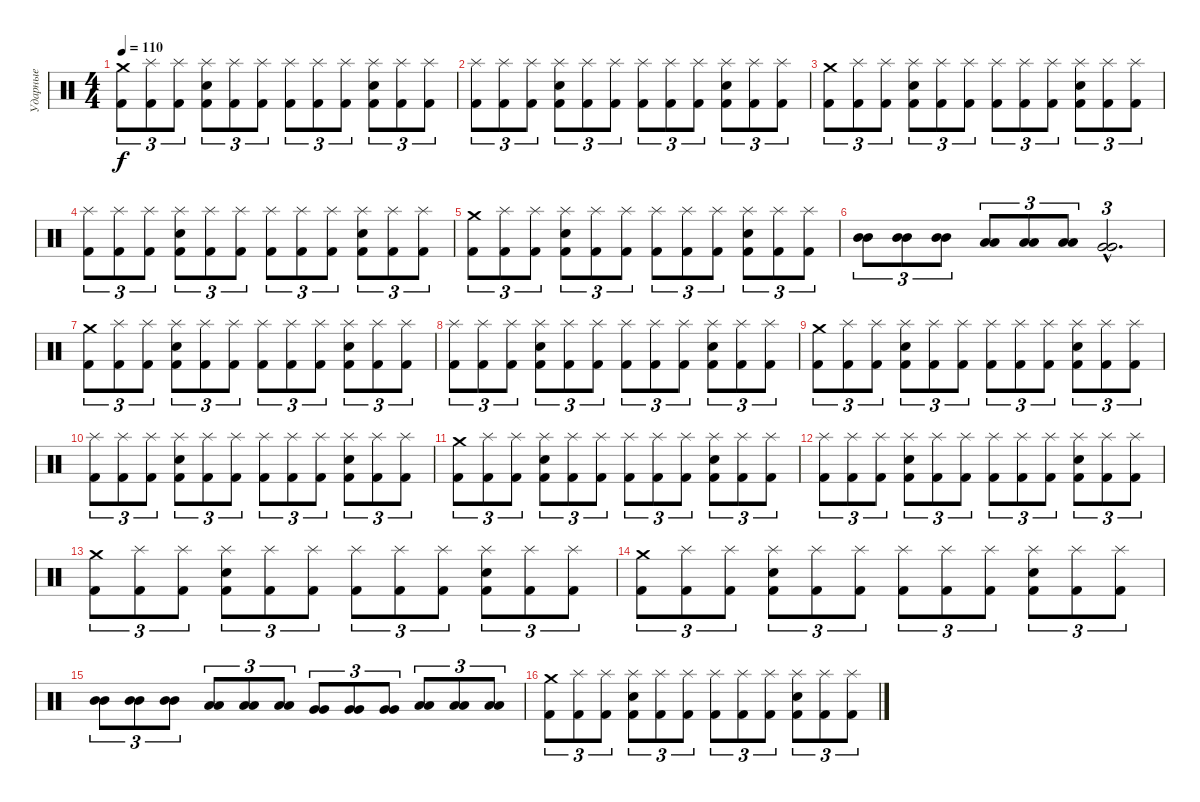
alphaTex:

\track ("Ударные" "Ударные") {instrument percussion}
\staff {score}
\articulation defaults
\ts (4 4)
\tempo 110
\clef neutral
\ks c
("Crash medium (hit)" "Kick (hit) 2").8{tu (3 2) dy f} ("Splash (hit)" "Kick (hit) 2").8{tu (3 2)} ("Splash (hit)" "Kick (hit) 2").8{tu (3 2)} ("Splash (hit)" "Electric Snare (hit)" "Kick (hit) 2").8{tu (3 2)} ("Splash (hit)" "Kick (hit) 2").8{tu (3 2)} ("Splash (hit)" "Kick (hit) 2").8{tu (3 2)} ("Splash (hit)" "Kick (hit) 2").8{tu (3 2)} ("Splash (hit)" "Kick (hit) 2").8{tu (3 2)} ("Splash (hit)" "Kick (hit) 2").8{tu (3 2)} ("Splash (hit)" "Electric Snare (hit)" "Kick (hit) 2").8{tu (3 2)} ("Splash (hit)" "Kick (hit) 2").8{tu (3 2)} ("Splash (hit)" "Kick (hit) 2").8{tu (3 2)} |
("Splash (hit)" "Kick (hit) 2").8{tu (3 2)} ("Splash (hit)" "Kick (hit) 2").8{tu (3 2)} ("Splash (hit)" "Kick (hit) 2").8{tu (3 2)} ("Splash (hit)" "Electric Snare (hit)" "Kick (hit) 2").8{tu (3 2)} ("Splash (hit)" "Kick (hit) 2").8{tu (3 2)} ("Splash (hit)" "Kick (hit) 2").8{tu (3 2)} ("Splash (hit)" "Kick (hit) 2").8{tu (3 2)} ("Splash (hit)" "Kick (hit) 2").8{tu (3 2)} ("Splash (hit)" "Kick (hit) 2").8{tu (3 2)} ("Splash (hit)" "Electric Snare (hit)" "Kick (hit) 2").8{tu (3 2)} ("Splash (hit)" "Kick (hit) 2").8{tu (3 2)} ("Splash (hit)" "Kick (hit) 2").8{tu (3 2)} |
("Crash medium (hit)" "Kick (hit) 2").8{tu (3 2)} ("Splash (hit)" "Kick (hit) 2").8{tu (3 2)} ("Splash (hit)" "Kick (hit) 2").8{tu (3 2)} ("Splash (hit)" "Electric Snare (hit)" "Kick (hit) 2").8{tu (3 2)} ("Splash (hit)" "Kick (hit) 2").8{tu (3 2)} ("Splash (hit)" "Kick (hit) 2").8{tu (3 2)} ("Splash (hit)" "Kick (hit) 2").8{tu (3 2)} ("Splash (hit)" "Kick (hit) 2").8{tu (3 2)} ("Splash (hit)" "Kick (hit) 2").8{tu (3 2)} ("Splash (hit)" "Electric Snare (hit)" "Kick (hit) 2").8{tu (3 2)} ("Splash (hit)" "Kick (hit) 2").8{tu (3 2)} ("Splash (hit)" "Kick (hit) 2").8{tu (3 2)} |
("Splash (hit)" "Kick (hit) 2").8{tu (3 2)} ("Splash (hit)" "Kick (hit) 2").8{tu (3 2)} ("Splash (hit)" "Kick (hit) 2").8{tu (3 2)} ("Splash (hit)" "Electric Snare (hit)" "Kick (hit) 2").8{tu (3 2)} ("Splash (hit)" "Kick (hit) 2").8{tu (3 2)} ("Splash (hit)" "Kick (hit) 2").8{tu (3 2)} ("Splash (hit)" "Kick (hit) 2").8{tu (3 2)} ("Splash (hit)" "Kick (hit) 2").8{tu (3 2)} ("Splash (hit)" "Kick (hit) 2").8{tu (3 2)} ("Splash (hit)" "Electric Snare (hit)" "Kick (hit) 2").8{tu (3 2)} ("Splash (hit)" "Kick (hit) 2").8{tu (3 2)} ("Splash (hit)" "Kick (hit) 2").8{tu (3 2)} |
("Crash medium (hit)" "Kick (hit) 2").8{tu (3 2)} ("Splash (hit)" "Kick (hit) 2").8{tu (3 2)} ("Splash (hit)" "Kick (hit) 2").8{tu (3 2)} ("Splash (hit)" "Electric Snare (hit)" "Kick (hit) 2").8{tu (3 2)} ("Splash (hit)" "Kick (hit) 2").8{tu (3 2)} ("Splash (hit)" "Kick (hit) 2").8{tu (3 2)} ("Splash (hit)" "Kick (hit) 2").8{tu (3 2)} ("Splash (hit)" "Kick (hit) 2").8{tu (3 2)} ("Splash (hit)" "Kick (hit) 2").8{tu (3 2)} ("Splash (hit)" "Electric Snare (hit)" "Kick (hit) 2").8{tu (3 2)} ("Splash (hit)" "Kick (hit) 2").8{tu (3 2)} ("Splash (hit)" "Kick (hit) 2").8{tu (3 2)} |
("Mid Tom (hit)" "Mid Tom (hit)").8{tu (3 2)} ("Mid Tom (hit)" "Mid Tom (hit)").8{tu (3 2)} ("Mid Tom (hit)" "Mid Tom (hit)").8{tu (3 2)} ("Low Tom (hit)" "Low Tom (hit)").8{tu (3 2)} ("Low Tom (hit)" "Low Tom (hit)").8{tu (3 2)} ("Low Tom (hit)" "Low Tom (hit)").8{tu (3 2)} ("Very Low Tom (hit)"{hac} "Very Low Tom (hit)"{hac}).2{d tu (3 2)} |
("Crash medium (hit)" "Kick (hit) 2").8{tu (3 2)} ("Splash (hit)" "Kick (hit) 2").8{tu (3 2)} ("Splash (hit)" "Kick (hit) 2").8{tu (3 2)} ("Splash (hit)" "Electric Snare (hit)" "Kick (hit) 2").8{tu (3 2)} ("Splash (hit)" "Kick (hit) 2").8{tu (3 2)} ("Splash (hit)" "Kick (hit) 2").8{tu (3 2)} ("Splash (hit)" "Kick (hit) 2").8{tu (3 2)} ("Splash (hit)" "Kick (hit) 2").8{tu (3 2)} ("Splash (hit)" "Kick (hit) 2").8{tu (3 2)} ("Splash (hit)" "Electric Snare (hit)" "Kick (hit) 2").8{tu (3 2)} ("Splash (hit)" "Kick (hit) 2").8{tu (3 2)} ("Splash (hit)" "Kick (hit) 2").8{tu (3 2)} |
("Splash (hit)" "Kick (hit) 2").8{tu (3 2)} ("Splash (hit)" "Kick (hit) 2").8{tu (3 2)} ("Splash (hit)" "Kick (hit) 2").8{tu (3 2)} ("Splash (hit)" "Electric Snare (hit)" "Kick (hit) 2").8{tu (3 2)} ("Splash (hit)" "Kick (hit) 2").8{tu (3 2)} ("Splash (hit)" "Kick (hit) 2").8{tu (3 2)} ("Splash (hit)" "Kick (hit) 2").8{tu (3 2)} ("Splash (hit)" "Kick (hit) 2").8{tu (3 2)} ("Splash (hit)" "Kick (hit) 2").8{tu (3 2)} ("Splash (hit)" "Electric Snare (hit)" "Kick (hit) 2").8{tu (3 2)} ("Splash (hit)" "Kick (hit) 2").8{tu (3 2)} ("Splash (hit)" "Kick (hit) 2").8{tu (3 2)} |
("Crash medium (hit)" "Kick (hit) 2").8{tu (3 2)} ("Splash (hit)" "Kick (hit) 2").8{tu (3 2)} ("Splash (hit)" "Kick (hit) 2").8{tu (3 2)} ("Splash (hit)" "Electric Snare (hit)" "Kick (hit) 2").8{tu (3 2)} ("Splash (hit)" "Kick (hit) 2").8{tu (3 2)} ("Splash (hit)" "Kick (hit) 2").8{tu (3 2)} ("Splash (hit)" "Kick (hit) 2").8{tu (3 2)} ("Splash (hit)" "Kick (hit) 2").8{tu (3 2)} ("Splash (hit)" "Kick (hit) 2").8{tu (3 2)} ("Splash (hit)" "Electric Snare (hit)" "Kick (hit) 2").8{tu (3 2)} ("Splash (hit)" "Kick (hit) 2").8{tu (3 2)} ("Splash (hit)" "Kick (hit) 2").8{tu (3 2)} |
("Splash (hit)" "Kick (hit) 2").8{tu (3 2)} ("Splash (hit)" "Kick (hit) 2").8{tu (3 2)} ("Splash (hit)" "Kick (hit) 2").8{tu (3 2)} ("Splash (hit)" "Electric Snare (hit)" "Kick (hit) 2").8{tu (3 2)} ("Splash (hit)" "Kick (hit) 2").8{tu (3 2)} ("Splash (hit)" "Kick (hit) 2").8{tu (3 2)} ("Splash (hit)" "Kick (hit) 2").8{tu (3 2)} ("Splash (hit)" "Kick (hit) 2").8{tu (3 2)} ("Splash (hit)" "Kick (hit) 2").8{tu (3 2)} ("Splash (hit)" "Electric Snare (hit)" "Kick (hit) 2").8{tu (3 2)} ("Splash (hit)" "Kick (hit) 2").8{tu (3 2)} ("Splash (hit)" "Kick (hit) 2").8{tu (3 2)} |
("Crash medium (hit)" "Kick (hit) 2").8{tu (3 2)} ("Splash (hit)" "Kick (hit) 2").8{tu (3 2)} ("Splash (hit)" "Kick (hit) 2").8{tu (3 2)} ("Splash (hit)" "Electric Snare (hit)" "Kick (hit) 2").8{tu (3 2)} ("Splash (hit)" "Kick (hit) 2").8{tu (3 2)} ("Splash (hit)" "Kick (hit) 2").8{tu (3 2)} ("Splash (hit)" "Kick (hit) 2").8{tu (3 2)} ("Splash (hit)" "Kick (hit) 2").8{tu (3 2)} ("Splash (hit)" "Kick (hit) 2").8{tu (3 2)} ("Splash (hit)" "Electric Snare (hit)" "Kick (hit) 2").8{tu (3 2)} ("Splash (hit)" "Kick (hit) 2").8{tu (3 2)} ("Splash (hit)" "Kick (hit) 2").8{tu (3 2)} |
("Splash (hit)" "Kick (hit) 2").8{tu (3 2)} ("Splash (hit)" "Kick (hit) 2").8{tu (3 2)} ("Splash (hit)" "Kick (hit) 2").8{tu (3 2)} ("Splash (hit)" "Electric Snare (hit)" "Kick (hit) 2").8{tu (3 2)} ("Splash (hit)" "Kick (hit) 2").8{tu (3 2)} ("Splash (hit)" "Kick (hit) 2").8{tu (3 2)} ("Splash (hit)" "Kick (hit) 2").8{tu (3 2)} ("Splash (hit)" "Kick (hit) 2").8{tu (3 2)} ("Splash (hit)" "Kick (hit) 2").8{tu (3 2)} ("Splash (hit)" "Electric Snare (hit)" "Kick (hit) 2").8{tu (3 2)} ("Splash (hit)" "Kick (hit) 2").8{tu (3 2)} ("Splash (hit)" "Kick (hit) 2").8{tu (3 2)} |
("Crash medium (hit)" "Kick (hit) 2").8{tu (3 2)} ("Splash (hit)" "Kick (hit) 2").8{tu (3 2)} ("Splash (hit)" "Kick (hit) 2").8{tu (3 2)} ("Splash (hit)" "Electric Snare (hit)" "Kick (hit) 2").8{tu (3 2)} ("Splash (hit)" "Kick (hit) 2").8{tu (3 2)} ("Splash (hit)" "Kick (hit) 2").8{tu (3 2)} ("Splash (hit)" "Kick (hit) 2").8{tu (3 2)} ("Splash (hit)" "Kick (hit) 2").8{tu (3 2)} ("Splash (hit)" "Kick (hit) 2").8{tu (3 2)} ("Splash (hit)" "Electric Snare (hit)" "Kick (hit) 2").8{tu (3 2)} ("Splash (hit)" "Kick (hit) 2").8{tu (3 2)} ("Splash (hit)" "Kick (hit) 2").8{tu (3 2)} |
("Crash medium (hit)" "Kick (hit) 2").8{tu (3 2)} ("Splash (hit)" "Kick (hit) 2").8{tu (3 2)} ("Splash (hit)" "Kick (hit) 2").8{tu (3 2)} ("Splash (hit)" "Electric Snare (hit)" "Kick (hit) 2").8{tu (3 2)} ("Splash (hit)" "Kick (hit) 2").8{tu (3 2)} ("Splash (hit)" "Kick (hit) 2").8{tu (3 2)} ("Splash (hit)" "Kick (hit) 2").8{tu (3 2)} ("Splash (hit)" "Kick (hit) 2").8{tu (3 2)} ("Splash (hit)" "Kick (hit) 2").8{tu (3 2)} ("Splash (hit)" "Electric Snare (hit)" "Kick (hit) 2").8{tu (3 2)} ("Splash (hit)" "Kick (hit) 2").8{tu (3 2)} ("Splash (hit)" "Kick (hit) 2").8{tu (3 2)} |
("Mid Tom (hit)" "Mid Tom (hit)").8{tu (3 2)} ("Mid Tom (hit)" "Mid Tom (hit)").8{tu (3 2)} ("Mid Tom (hit)" "Mid Tom (hit)").8{tu (3 2)} ("Low Tom (hit)" "Low Tom (hit)").8{tu (3 2)} ("Low Tom (hit)" "Low Tom (hit)").8{tu (3 2)} ("Low Tom (hit)" "Low Tom (hit)").8{tu (3 2)} ("Very Low Tom (hit)" "Very Low Tom (hit)").8{tu (3 2)} ("Very Low Tom (hit)" "Very Low Tom (hit)").8{tu (3 2)} ("Very Low Tom (hit)" "Very Low Tom (hit)").8{tu (3 2)} ("Low Floor Tom (hit)" "Low Floor Tom (hit)").8{tu (3 2)} ("Low Floor Tom (hit)" "Low Floor Tom (hit)").8{tu (3 2)} ("Low Floor Tom (hit)" "Low Floor Tom (hit)").8{tu (3 2)} |
("Crash medium (hit)" "Kick (hit) 2").8{tu (3 2)} ("Splash (hit)" "Kick (hit) 2").8{tu (3 2)} ("Splash (hit)" "Kick (hit) 2").8{tu (3 2)} ("Splash (hit)" "Electric Snare (hit)" "Kick (hit) 2").8{tu (3 2)} ("Splash (hit)" "Kick (hit) 2").8{tu (3 2)} ("Splash (hit)" "Kick (hit) 2").8{tu (3 2)} ("Splash (hit)" "Kick (hit) 2").8{tu (3 2)} ("Splash (hit)" "Kick (hit) 2").8{tu (3 2)} ("Splash (hit)" "Kick (hit) 2").8{tu (3 2)} ("Splash (hit)" "Electric Snare (hit)" "Kick (hit) 2").8{tu (3 2)} ("Splash (hit)" "Kick (hit) 2").8{tu (3 2)} ("Splash (hit)" "Kick (hit) 2").8{tu (3 2)}
